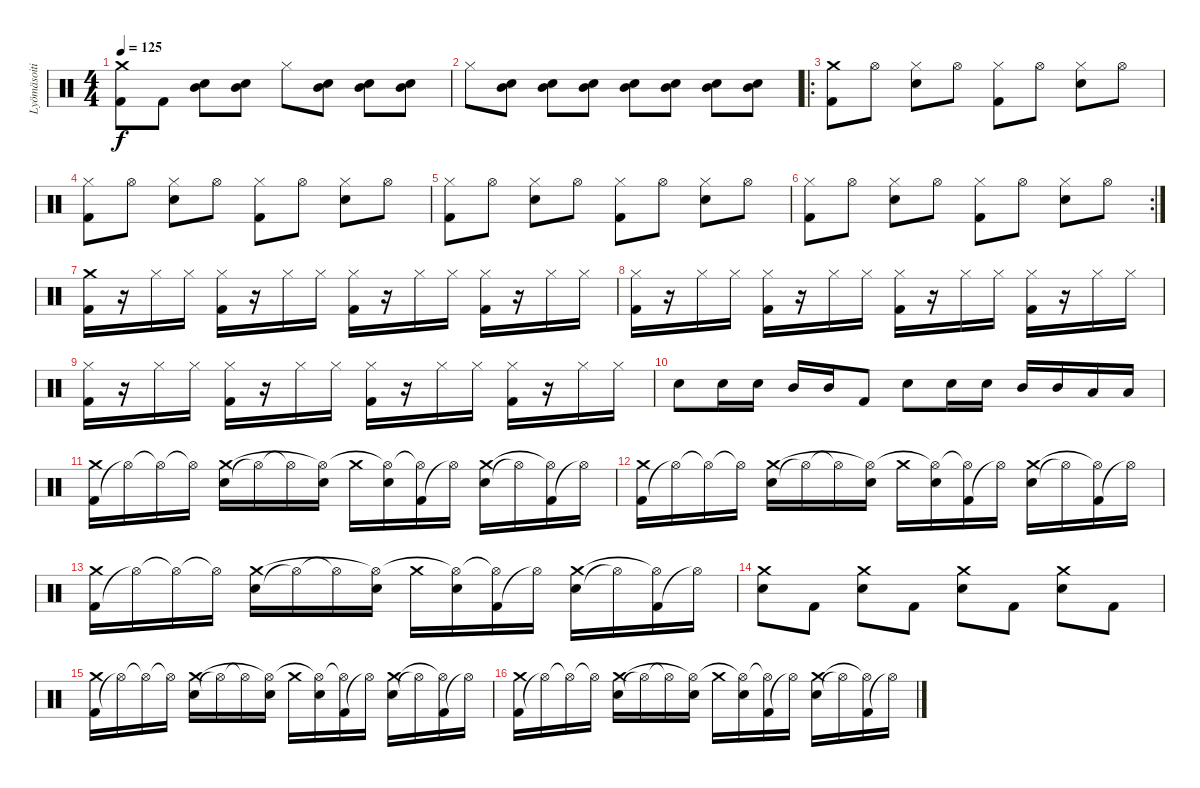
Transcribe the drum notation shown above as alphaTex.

\track ("Lyömäsoitin" "Lyömäsoiti") {instrument percussion}
\staff {score}
\articulation defaults
\ts (4 4)
\tempo 125
\clef neutral
\ks c
("Kick (hit) 2" "Crash medium (hit)").8{dy f} "Kick (hit) 2".8 ("Electric Snare (hit)" "Mid Tom (hit)").8 ("Electric Snare (hit)" "Mid Tom (hit)").8 "Hi-Hat (closed)".8 ("Electric Snare (hit)" "Mid Tom (hit)").8 ("Electric Snare (hit)" "Mid Tom (hit)").8 ("Electric Snare (hit)" "Mid Tom (hit)").8 |
"Hi-Hat (closed)".8 ("Electric Snare (hit)" "Mid Tom (hit)").8 ("Electric Snare (hit)" "Mid Tom (hit)").8 ("Electric Snare (hit)" "Mid Tom (hit)").8 ("Electric Snare (hit)" "Mid Tom (hit)").8 ("Electric Snare (hit)" "Mid Tom (hit)").8 ("Electric Snare (hit)" "Mid Tom (hit)").8 ("Electric Snare (hit)" "Mid Tom (hit)").8 |
\ro
("Kick (hit) 2" "Crash medium (hit)").8 "Hi-Hat (open)".8 ("Electric Snare (hit)" "Hi-Hat (closed)").8 "Hi-Hat (open)".8 ("Kick (hit) 2" "Hi-Hat (closed)").8 "Hi-Hat (open)".8 ("Electric Snare (hit)" "Hi-Hat (closed)").8 "Hi-Hat (open)".8 |
("Kick (hit) 2" "Hi-Hat (closed)").8 "Hi-Hat (open)".8 ("Electric Snare (hit)" "Hi-Hat (closed)").8 "Hi-Hat (open)".8 ("Kick (hit) 2" "Hi-Hat (closed)").8 "Hi-Hat (open)".8 ("Electric Snare (hit)" "Hi-Hat (closed)").8 "Hi-Hat (open)".8 |
("Kick (hit) 2" "Hi-Hat (closed)").8 "Hi-Hat (open)".8 ("Electric Snare (hit)" "Hi-Hat (closed)").8 "Hi-Hat (open)".8 ("Kick (hit) 2" "Hi-Hat (closed)").8 "Hi-Hat (open)".8 ("Electric Snare (hit)" "Hi-Hat (closed)").8 "Hi-Hat (open)".8 |
\rc 2
("Kick (hit) 2" "Hi-Hat (closed)").8 "Hi-Hat (open)".8 ("Electric Snare (hit)" "Hi-Hat (closed)").8 "Hi-Hat (open)".8 ("Kick (hit) 2" "Hi-Hat (closed)").8 "Hi-Hat (open)".8 ("Electric Snare (hit)" "Hi-Hat (closed)").8 "Hi-Hat (open)".8 |
("Kick (hit) 2" "Crash medium (hit)").16 r.16 "Hi-Hat (closed)".16 "Hi-Hat (closed)".16 ("Kick (hit) 2" "Hi-Hat (closed)").16 r.16 "Hi-Hat (closed)".16 "Hi-Hat (closed)".16 ("Kick (hit) 2" "Hi-Hat (closed)").16 r.16 "Hi-Hat (closed)".16 "Hi-Hat (closed)".16 ("Kick (hit) 2" "Hi-Hat (closed)").16 r.16 "Hi-Hat (closed)".16 "Hi-Hat (closed)".16 |
("Kick (hit) 2" "Hi-Hat (closed)").16 r.16 "Hi-Hat (closed)".16 "Hi-Hat (closed)".16 ("Kick (hit) 2" "Hi-Hat (closed)").16 r.16 "Hi-Hat (closed)".16 "Hi-Hat (closed)".16 ("Kick (hit) 2" "Hi-Hat (closed)").16 r.16 "Hi-Hat (closed)".16 "Hi-Hat (closed)".16 ("Kick (hit) 2" "Hi-Hat (closed)").16 r.16 "Hi-Hat (closed)".16 "Hi-Hat (closed)".16 |
("Kick (hit) 2" "Hi-Hat (closed)").16 r.16 "Hi-Hat (closed)".16 "Hi-Hat (closed)".16 ("Kick (hit) 2" "Hi-Hat (closed)").16 r.16 "Hi-Hat (closed)".16 "Hi-Hat (closed)".16 ("Kick (hit) 2" "Hi-Hat (closed)").16 r.16 "Hi-Hat (closed)".16 "Hi-Hat (closed)".16 ("Kick (hit) 2" "Hi-Hat (closed)").16 r.16 "Hi-Hat (closed)".16 "Hi-Hat (closed)".16 |
"Electric Snare (hit)".8 "Electric Snare (hit)".16 "Electric Snare (hit)".16 "Mid Tom (hit)".16 "Mid Tom (hit)".16 "Kick (hit) 2".8 "Electric Snare (hit)".8 "Electric Snare (hit)".16 "Electric Snare (hit)".16 "Mid Tom (hit)".16 "Mid Tom (hit)".16 "Low Tom (hit)".16 "Low Tom (hit)".16 |
("Kick (hit) 2" "Crash medium (hit)").16 "Hi-Hat (open)"{t}.16 "Hi-Hat (open)"{t}.16 "Hi-Hat (open)"{t}.16 ("Electric Snare (hit)" "Crash medium (hit)").16 "Hi-Hat (open)"{t}.16 "Hi-Hat (open)"{t}.16 ("Electric Snare (hit)" "Hi-Hat (open)"{t}).16 "Crash medium (hit)".16 ("Electric Snare (hit)" "Hi-Hat (open)"{t}).16 ("Kick (hit) 2" "Hi-Hat (open)"{t}).16 "Hi-Hat (open)"{t}.16 ("Electric Snare (hit)" "Crash medium (hit)").16 "Hi-Hat (open)"{t}.16 ("Kick (hit) 2" "Hi-Hat (open)"{t}).16 "Hi-Hat (open)"{t}.16 |
("Kick (hit) 2" "Crash medium (hit)").16 "Hi-Hat (open)"{t}.16 "Hi-Hat (open)"{t}.16 "Hi-Hat (open)"{t}.16 ("Electric Snare (hit)" "Crash medium (hit)").16 "Hi-Hat (open)"{t}.16 "Hi-Hat (open)"{t}.16 ("Electric Snare (hit)" "Hi-Hat (open)"{t}).16 "Crash medium (hit)".16 ("Electric Snare (hit)" "Hi-Hat (open)"{t}).16 ("Kick (hit) 2" "Hi-Hat (open)"{t}).16 "Hi-Hat (open)"{t}.16 ("Electric Snare (hit)" "Crash medium (hit)").16 "Hi-Hat (open)"{t}.16 ("Kick (hit) 2" "Hi-Hat (open)"{t}).16 "Hi-Hat (open)"{t}.16 |
("Kick (hit) 2" "Crash medium (hit)").16 "Hi-Hat (open)"{t}.16 "Hi-Hat (open)"{t}.16 "Hi-Hat (open)"{t}.16 ("Electric Snare (hit)" "Crash medium (hit)").16 "Hi-Hat (open)"{t}.16 "Hi-Hat (open)"{t}.16 ("Electric Snare (hit)" "Hi-Hat (open)"{t}).16 "Crash medium (hit)".16 ("Electric Snare (hit)" "Hi-Hat (open)"{t}).16 ("Kick (hit) 2" "Hi-Hat (open)"{t}).16 "Hi-Hat (open)"{t}.16 ("Electric Snare (hit)" "Crash medium (hit)").16 "Hi-Hat (open)"{t}.16 ("Kick (hit) 2" "Hi-Hat (open)"{t}).16 "Hi-Hat (open)"{t}.16 |
("Crash medium (hit)" "Electric Snare (hit)").8 "Kick (hit) 2".8 ("Crash medium (hit)" "Electric Snare (hit)").8 "Kick (hit) 2".8 ("Crash medium (hit)" "Electric Snare (hit)").8 "Kick (hit) 2".8 ("Crash medium (hit)" "Electric Snare (hit)").8 "Kick (hit) 2".8 |
("Kick (hit) 2" "Crash medium (hit)").16 "Hi-Hat (open)"{t}.16 "Hi-Hat (open)"{t}.16 "Hi-Hat (open)"{t}.16 ("Electric Snare (hit)" "Crash medium (hit)").16 "Hi-Hat (open)"{t}.16 "Hi-Hat (open)"{t}.16 ("Electric Snare (hit)" "Hi-Hat (open)"{t}).16 "Crash medium (hit)".16 ("Electric Snare (hit)" "Hi-Hat (open)"{t}).16 ("Kick (hit) 2" "Hi-Hat (open)"{t}).16 "Hi-Hat (open)"{t}.16 ("Electric Snare (hit)" "Crash medium (hit)").16 "Hi-Hat (open)"{t}.16 ("Kick (hit) 2" "Hi-Hat (open)"{t}).16 "Hi-Hat (open)"{t}.16 |
("Kick (hit) 2" "Crash medium (hit)").16 "Hi-Hat (open)"{t}.16 "Hi-Hat (open)"{t}.16 "Hi-Hat (open)"{t}.16 ("Electric Snare (hit)" "Crash medium (hit)").16 "Hi-Hat (open)"{t}.16 "Hi-Hat (open)"{t}.16 ("Electric Snare (hit)" "Hi-Hat (open)"{t}).16 "Crash medium (hit)".16 ("Electric Snare (hit)" "Hi-Hat (open)"{t}).16 ("Kick (hit) 2" "Hi-Hat (open)"{t}).16 "Hi-Hat (open)"{t}.16 ("Electric Snare (hit)" "Crash medium (hit)").16 "Hi-Hat (open)"{t}.16 ("Kick (hit) 2" "Hi-Hat (open)"{t}).16 "Hi-Hat (open)"{t}.16
